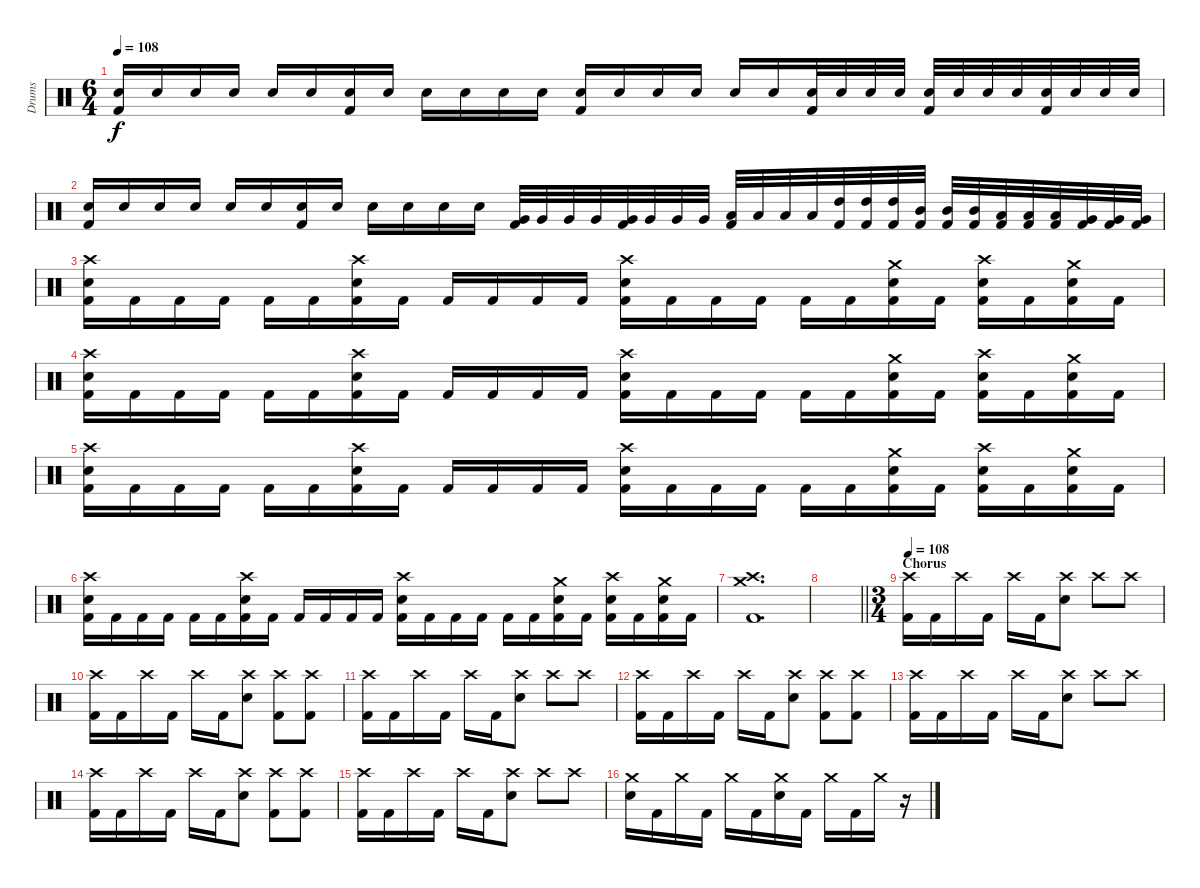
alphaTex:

\track ("Drums" "Drums") {instrument percussion}
\staff {score}
\articulation defaults
\ts (6 4)
\tempo 108
\clef neutral
\ks c
("Electric Snare (hit)" "Kick (hit) 2").16{dy f} "Electric Snare (hit)".16 "Electric Snare (hit)".16 "Electric Snare (hit)".16 "Electric Snare (hit)".16 "Electric Snare (hit)".16 ("Electric Snare (hit)" "Kick (hit) 2").16 "Electric Snare (hit)".16 "Electric Snare (hit)".16 "Electric Snare (hit)".16 "Electric Snare (hit)".16 "Electric Snare (hit)".16 ("Electric Snare (hit)" "Kick (hit) 2").16 "Electric Snare (hit)".16 "Electric Snare (hit)".16 "Electric Snare (hit)".16 "Electric Snare (hit)".16 "Electric Snare (hit)".16 ("Electric Snare (hit)" "Kick (hit) 2").32 "Electric Snare (hit)".32 "Electric Snare (hit)".32 "Electric Snare (hit)".32 ("Electric Snare (hit)" "Kick (hit) 2").32 "Electric Snare (hit)".32 "Electric Snare (hit)".32 "Electric Snare (hit)".32 ("Electric Snare (hit)" "Kick (hit) 2").32 "Electric Snare (hit)".32 "Electric Snare (hit)".32 "Electric Snare (hit)".32 |
("Electric Snare (hit)" "Kick (hit) 2").16 "Electric Snare (hit)".16 "Electric Snare (hit)".16 "Electric Snare (hit)".16 "Electric Snare (hit)".16 "Electric Snare (hit)".16 ("Electric Snare (hit)" "Kick (hit) 2").16 "Electric Snare (hit)".16 "Electric Snare (hit)".16 "Electric Snare (hit)".16 "Electric Snare (hit)".16 "Electric Snare (hit)".16 ("Very Low Tom (hit)" "Kick (hit) 2").32 "Very Low Tom (hit)".32 "Very Low Tom (hit)".32 "Very Low Tom (hit)".32 ("Very Low Tom (hit)" "Kick (hit) 2").32 "Very Low Tom (hit)".32 "Very Low Tom (hit)".32 "Very Low Tom (hit)".32 ("Low Floor Tom (hit)" "Kick (hit) 2").32 "Low Floor Tom (hit)".32 "Low Floor Tom (hit)".32 "Low Floor Tom (hit)".32 ("High Tom (hit)" "Kick (hit) 2").32 ("High Tom (hit)" "Kick (hit) 2").32 ("High Tom (hit)" "Kick (hit) 2").32 ("Mid Tom (hit)" "Kick (hit) 2").32 ("Mid Tom (hit)" "Kick (hit) 2").32 ("Mid Tom (hit)" "Kick (hit) 2").32 ("Low Tom (hit)" "Kick (hit) 2").32 ("Low Tom (hit)" "Kick (hit) 2").32 ("Low Tom (hit)" "Kick (hit) 2").32 ("Very Low Tom (hit)" "Kick (hit) 2").32 ("Very Low Tom (hit)" "Kick (hit) 2").32 ("Very Low Tom (hit)" "Kick (hit) 2").32 |
("Crash high (hit)" "Electric Snare (hit)" "Kick (hit) 2").16 "Kick (hit) 2".16 "Kick (hit) 2".16 "Kick (hit) 2".16 "Kick (hit) 2".16 "Kick (hit) 2".16 ("Crash high (hit)" "Electric Snare (hit)" "Kick (hit) 2").16 "Kick (hit) 2".16 "Kick (hit) 2".16 "Kick (hit) 2".16 "Kick (hit) 2".16 "Kick (hit) 2".16 ("Crash high (hit)" "Electric Snare (hit)" "Kick (hit) 2").16 "Kick (hit) 2".16 "Kick (hit) 2".16 "Kick (hit) 2".16 "Kick (hit) 2".16 "Kick (hit) 2".16 ("Crash medium (hit)" "Electric Snare (hit)" "Kick (hit) 2").16 "Kick (hit) 2".16 ("Crash high (hit)" "Electric Snare (hit)" "Kick (hit) 2").16 "Kick (hit) 2".16 ("Crash medium (hit)" "Electric Snare (hit)" "Kick (hit) 2").16 "Kick (hit) 2".16 |
("Crash high (hit)" "Electric Snare (hit)" "Kick (hit) 2").16 "Kick (hit) 2".16 "Kick (hit) 2".16 "Kick (hit) 2".16 "Kick (hit) 2".16 "Kick (hit) 2".16 ("Crash high (hit)" "Electric Snare (hit)" "Kick (hit) 2").16 "Kick (hit) 2".16 "Kick (hit) 2".16 "Kick (hit) 2".16 "Kick (hit) 2".16 "Kick (hit) 2".16 ("Crash high (hit)" "Electric Snare (hit)" "Kick (hit) 2").16 "Kick (hit) 2".16 "Kick (hit) 2".16 "Kick (hit) 2".16 "Kick (hit) 2".16 "Kick (hit) 2".16 ("Crash medium (hit)" "Electric Snare (hit)" "Kick (hit) 2").16 "Kick (hit) 2".16 ("Crash high (hit)" "Electric Snare (hit)" "Kick (hit) 2").16 "Kick (hit) 2".16 ("Crash medium (hit)" "Electric Snare (hit)" "Kick (hit) 2").16 "Kick (hit) 2".16 |
("Crash high (hit)" "Electric Snare (hit)" "Kick (hit) 2").16 "Kick (hit) 2".16 "Kick (hit) 2".16 "Kick (hit) 2".16 "Kick (hit) 2".16 "Kick (hit) 2".16 ("Crash high (hit)" "Electric Snare (hit)" "Kick (hit) 2").16 "Kick (hit) 2".16 "Kick (hit) 2".16 "Kick (hit) 2".16 "Kick (hit) 2".16 "Kick (hit) 2".16 ("Crash high (hit)" "Electric Snare (hit)" "Kick (hit) 2").16 "Kick (hit) 2".16 "Kick (hit) 2".16 "Kick (hit) 2".16 "Kick (hit) 2".16 "Kick (hit) 2".16 ("Crash medium (hit)" "Electric Snare (hit)" "Kick (hit) 2").16 "Kick (hit) 2".16 ("Crash high (hit)" "Electric Snare (hit)" "Kick (hit) 2").16 "Kick (hit) 2".16 ("Crash medium (hit)" "Electric Snare (hit)" "Kick (hit) 2").16 "Kick (hit) 2".16 |
("Crash high (hit)" "Electric Snare (hit)" "Kick (hit) 2").16 "Kick (hit) 2".16 "Kick (hit) 2".16 "Kick (hit) 2".16 "Kick (hit) 2".16 "Kick (hit) 2".16 ("Crash high (hit)" "Electric Snare (hit)" "Kick (hit) 2").16 "Kick (hit) 2".16 "Kick (hit) 2".16 "Kick (hit) 2".16 "Kick (hit) 2".16 "Kick (hit) 2".16 ("Crash high (hit)" "Electric Snare (hit)" "Kick (hit) 2").16 "Kick (hit) 2".16 "Kick (hit) 2".16 "Kick (hit) 2".16 "Kick (hit) 2".16 "Kick (hit) 2".16 ("Crash medium (hit)" "Electric Snare (hit)" "Kick (hit) 2").16 "Kick (hit) 2".16 ("Crash high (hit)" "Electric Snare (hit)" "Kick (hit) 2").16 "Kick (hit) 2".16 ("Crash medium (hit)" "Electric Snare (hit)" "Kick (hit) 2").16 "Kick (hit) 2".16 |
("Crash medium (hit)" "Crash high (hit)" "Kick (hit) 2").1{d} |
\barLineRight lightlight
|
\ts (3 4)
\section ("" "Chorus")
\tempo 108
("Crash high (hit)" "Kick (hit) 2").16 "Kick (hit) 2".16 "Crash high (hit)".16 "Kick (hit) 2".16 "Crash high (hit)".16 "Kick (hit) 2".16 ("Crash high (hit)" "Electric Snare (hit)").8 "Crash high (hit)".8 "Crash high (hit)".8 |
("Crash high (hit)" "Kick (hit) 2").16 "Kick (hit) 2".16 "Crash high (hit)".16 "Kick (hit) 2".16 "Crash high (hit)".16 "Kick (hit) 2".16 ("Crash high (hit)" "Electric Snare (hit)").8 ("Crash high (hit)" "Kick (hit) 2").8 ("Crash high (hit)" "Kick (hit) 2").8 |
("Crash high (hit)" "Kick (hit) 2").16 "Kick (hit) 2".16 "Crash high (hit)".16 "Kick (hit) 2".16 "Crash high (hit)".16 "Kick (hit) 2".16 ("Crash high (hit)" "Electric Snare (hit)").8 "Crash high (hit)".8 "Crash high (hit)".8 |
("Crash high (hit)" "Kick (hit) 2").16 "Kick (hit) 2".16 "Crash high (hit)".16 "Kick (hit) 2".16 "Crash high (hit)".16 "Kick (hit) 2".16 ("Crash high (hit)" "Electric Snare (hit)").8 ("Crash high (hit)" "Kick (hit) 2").8 ("Crash high (hit)" "Kick (hit) 2").8 |
("Crash high (hit)" "Kick (hit) 2").16 "Kick (hit) 2".16 "Crash high (hit)".16 "Kick (hit) 2".16 "Crash high (hit)".16 "Kick (hit) 2".16 ("Crash high (hit)" "Electric Snare (hit)").8 "Crash high (hit)".8 "Crash high (hit)".8 |
("Crash high (hit)" "Kick (hit) 2").16 "Kick (hit) 2".16 "Crash high (hit)".16 "Kick (hit) 2".16 "Crash high (hit)".16 "Kick (hit) 2".16 ("Crash high (hit)" "Electric Snare (hit)").8 ("Crash high (hit)" "Kick (hit) 2").8 ("Crash high (hit)" "Kick (hit) 2").8 |
("Crash high (hit)" "Kick (hit) 2").16 "Kick (hit) 2".16 "Crash high (hit)".16 "Kick (hit) 2".16 "Crash high (hit)".16 "Kick (hit) 2".16 ("Crash high (hit)" "Electric Snare (hit)").8 "Crash high (hit)".8 "Crash high (hit)".8 |
("Crash medium (hit)" "Electric Snare (hit)").16 "Kick (hit) 2".16 "Crash medium (hit)".16 "Kick (hit) 2".16 "Crash medium (hit)".16 "Kick (hit) 2".16 ("Crash medium (hit)" "Electric Snare (hit)").16 "Kick (hit) 2".16 "Crash medium (hit)".16 "Kick (hit) 2".16 "Crash medium (hit)".16 r.16
